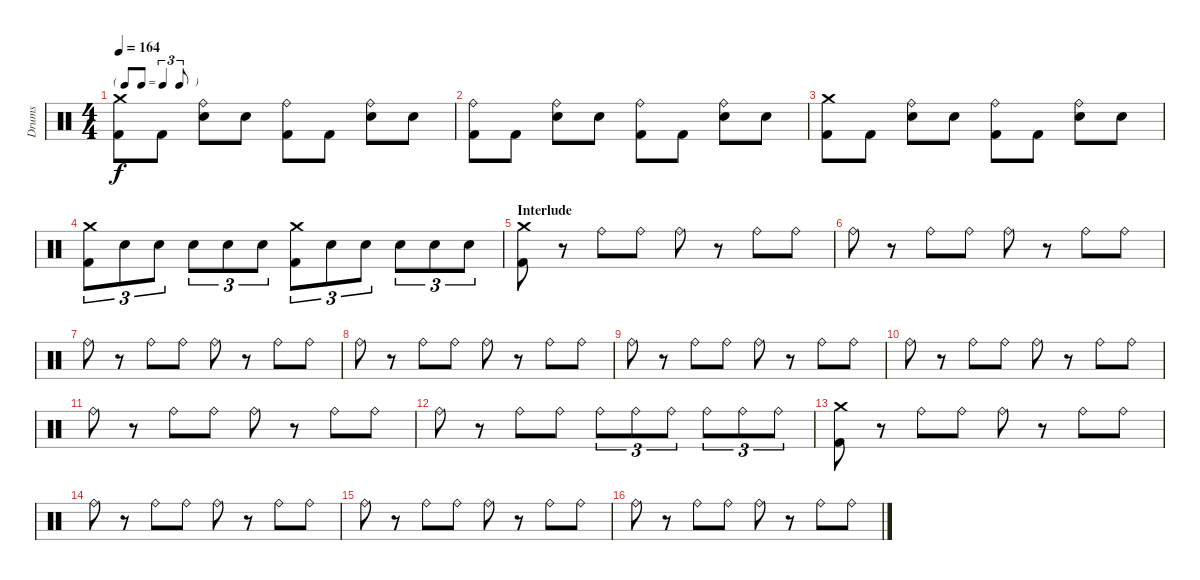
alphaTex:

\track ("Drums" "Drums") {instrument percussion}
\staff {score}
\articulation defaults
\ts (4 4)
\tf triplet8th
\tempo 164
\clef neutral
\ks c
("Crash medium (hit)" "Kick (hit) 2").8{dy f} "Kick (hit) 2".8 ("Ride (bell)" "Electric Snare (hit)").8 "Electric Snare (hit)".8 ("Ride (bell)" "Kick (hit) 2").8 "Kick (hit) 2".8 ("Ride (bell)" "Electric Snare (hit)").8 "Electric Snare (hit)".8 |
("Ride (bell)" "Kick (hit) 2").8 "Kick (hit) 2".8 ("Ride (bell)" "Electric Snare (hit)").8 "Electric Snare (hit)".8 ("Ride (bell)" "Kick (hit) 2").8 "Kick (hit) 2".8 ("Ride (bell)" "Electric Snare (hit)").8 "Electric Snare (hit)".8 |
("Crash medium (hit)" "Kick (hit) 2").8 "Kick (hit) 2".8 ("Ride (bell)" "Electric Snare (hit)").8 "Electric Snare (hit)".8 ("Ride (bell)" "Kick (hit) 2").8 "Kick (hit) 2".8 ("Ride (bell)" "Electric Snare (hit)").8 "Electric Snare (hit)".8 |
("Crash medium (hit)" "Kick (hit) 2").8{tu (3 2)} "Electric Snare (hit)".8{tu (3 2)} "Electric Snare (hit)".8{tu (3 2)} "Electric Snare (hit)".8{tu (3 2)} "Electric Snare (hit)".8{tu (3 2)} "Electric Snare (hit)".8{tu (3 2)} ("Crash medium (hit)" "Kick (hit) 2").8{tu (3 2)} "Electric Snare (hit)".8{tu (3 2)} "Electric Snare (hit)".8{tu (3 2)} "Electric Snare (hit)".8{tu (3 2)} "Electric Snare (hit)".8{tu (3 2)} "Electric Snare (hit)".8{tu (3 2)} |
\section ("" "Interlude")
("Crash medium (hit)" "Kick (hit) 2").8 r.8 "Ride (bell)".8 "Ride (bell)".8 "Ride (bell)".8 r.8 "Ride (bell)".8 "Ride (bell)".8 |
"Ride (bell)".8 r.8 "Ride (bell)".8 "Ride (bell)".8 "Ride (bell)".8 r.8 "Ride (bell)".8 "Ride (bell)".8 |
"Ride (bell)".8 r.8 "Ride (bell)".8 "Ride (bell)".8 "Ride (bell)".8 r.8 "Ride (bell)".8 "Ride (bell)".8 |
"Ride (bell)".8 r.8 "Ride (bell)".8 "Ride (bell)".8 "Ride (bell)".8 r.8 "Ride (bell)".8 "Ride (bell)".8 |
"Ride (bell)".8 r.8 "Ride (bell)".8 "Ride (bell)".8 "Ride (bell)".8 r.8 "Ride (bell)".8 "Ride (bell)".8 |
"Ride (bell)".8 r.8 "Ride (bell)".8 "Ride (bell)".8 "Ride (bell)".8 r.8 "Ride (bell)".8 "Ride (bell)".8 |
"Ride (bell)".8 r.8 "Ride (bell)".8 "Ride (bell)".8 "Ride (bell)".8 r.8 "Ride (bell)".8 "Ride (bell)".8 |
"Ride (bell)".8 r.8 "Ride (bell)".8 "Ride (bell)".8 "Ride (bell)".8{tu (3 2)} "Ride (bell)".8{tu (3 2)} "Ride (bell)".8{tu (3 2)} "Ride (bell)".8{tu (3 2)} "Ride (bell)".8{tu (3 2)} "Ride (bell)".8{tu (3 2)} |
("Crash medium (hit)" "Kick (hit) 2").8 r.8 "Ride (bell)".8 "Ride (bell)".8 "Ride (bell)".8 r.8 "Ride (bell)".8 "Ride (bell)".8 |
"Ride (bell)".8 r.8 "Ride (bell)".8 "Ride (bell)".8 "Ride (bell)".8 r.8 "Ride (bell)".8 "Ride (bell)".8 |
"Ride (bell)".8 r.8 "Ride (bell)".8 "Ride (bell)".8 "Ride (bell)".8 r.8 "Ride (bell)".8 "Ride (bell)".8 |
"Ride (bell)".8 r.8 "Ride (bell)".8 "Ride (bell)".8 "Ride (bell)".8 r.8 "Ride (bell)".8 "Ride (bell)".8
